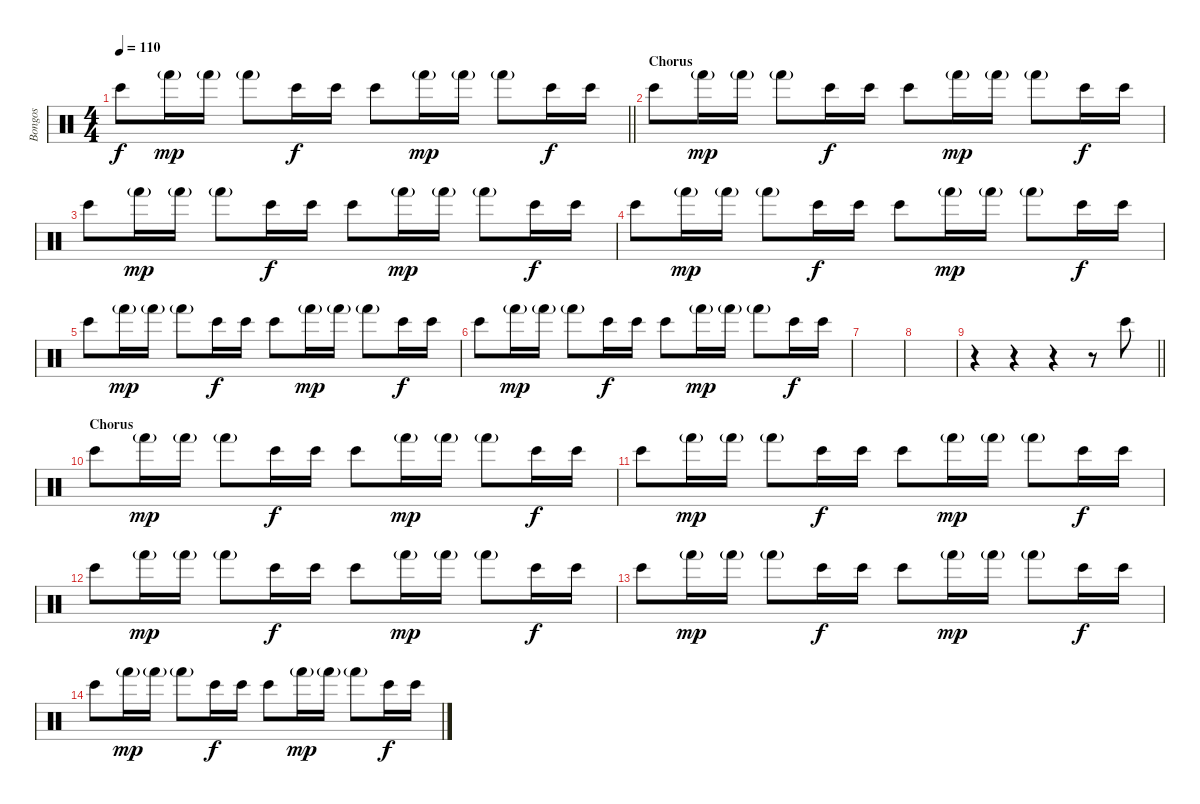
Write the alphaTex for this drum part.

\track ("Bongos" "Bongos") {instrument percussion}
\staff {score}
\articulation defaults
\ts (4 4)
\tempo 110
\clef neutral
\barLineRight lightlight
\ks c "Bongo High (hit)".8{dy f} "Hand (hit)"{g}.16{dy mp} "Hand (hit)"{g}.16 "Hand (hit)"{g}.8 "Bongo High (hit)".16{dy f} "Bongo High (hit)".16 "Bongo High (hit)".8 "Hand (hit)"{g}.16{dy mp} "Hand (hit)"{g}.16 "Hand (hit)"{g}.8 "Bongo High (hit)".16{dy f} "Bongo High (hit)".16
|
\section ("" "Chorus")
"Bongo High (hit)".8 "Hand (hit)"{g}.16{dy mp} "Hand (hit)"{g}.16 "Hand (hit)"{g}.8 "Bongo High (hit)".16{dy f} "Bongo High (hit)".16 "Bongo High (hit)".8 "Hand (hit)"{g}.16{dy mp} "Hand (hit)"{g}.16 "Hand (hit)"{g}.8 "Bongo High (hit)".16{dy f} "Bongo High (hit)".16 |
"Bongo High (hit)".8 "Hand (hit)"{g}.16{dy mp} "Hand (hit)"{g}.16 "Hand (hit)"{g}.8 "Bongo High (hit)".16{dy f} "Bongo High (hit)".16 "Bongo High (hit)".8 "Hand (hit)"{g}.16{dy mp} "Hand (hit)"{g}.16 "Hand (hit)"{g}.8 "Bongo High (hit)".16{dy f} "Bongo High (hit)".16 |
"Bongo High (hit)".8 "Hand (hit)"{g}.16{dy mp} "Hand (hit)"{g}.16 "Hand (hit)"{g}.8 "Bongo High (hit)".16{dy f} "Bongo High (hit)".16 "Bongo High (hit)".8 "Hand (hit)"{g}.16{dy mp} "Hand (hit)"{g}.16 "Hand (hit)"{g}.8 "Bongo High (hit)".16{dy f} "Bongo High (hit)".16 |
"Bongo High (hit)".8 "Hand (hit)"{g}.16{dy mp} "Hand (hit)"{g}.16 "Hand (hit)"{g}.8 "Bongo High (hit)".16{dy f} "Bongo High (hit)".16 "Bongo High (hit)".8 "Hand (hit)"{g}.16{dy mp} "Hand (hit)"{g}.16 "Hand (hit)"{g}.8 "Bongo High (hit)".16{dy f} "Bongo High (hit)".16 |
"Bongo High (hit)".8 "Hand (hit)"{g}.16{dy mp} "Hand (hit)"{g}.16 "Hand (hit)"{g}.8 "Bongo High (hit)".16{dy f} "Bongo High (hit)".16 "Bongo High (hit)".8 "Hand (hit)"{g}.16{dy mp} "Hand (hit)"{g}.16 "Hand (hit)"{g}.8 "Bongo High (hit)".16{dy f} "Bongo High (hit)".16 |
|
|
\barLineRight lightlight
r.4 r.4 r.4 r.8 "Bongo High (hit)".8 |
\section ("" "Chorus")
"Bongo High (hit)".8 "Hand (hit)"{g}.16{dy mp} "Hand (hit)"{g}.16 "Hand (hit)"{g}.8 "Bongo High (hit)".16{dy f} "Bongo High (hit)".16 "Bongo High (hit)".8 "Hand (hit)"{g}.16{dy mp} "Hand (hit)"{g}.16 "Hand (hit)"{g}.8 "Bongo High (hit)".16{dy f} "Bongo High (hit)".16 |
"Bongo High (hit)".8 "Hand (hit)"{g}.16{dy mp} "Hand (hit)"{g}.16 "Hand (hit)"{g}.8 "Bongo High (hit)".16{dy f} "Bongo High (hit)".16 "Bongo High (hit)".8 "Hand (hit)"{g}.16{dy mp} "Hand (hit)"{g}.16 "Hand (hit)"{g}.8 "Bongo High (hit)".16{dy f} "Bongo High (hit)".16 |
"Bongo High (hit)".8 "Hand (hit)"{g}.16{dy mp} "Hand (hit)"{g}.16 "Hand (hit)"{g}.8 "Bongo High (hit)".16{dy f} "Bongo High (hit)".16 "Bongo High (hit)".8 "Hand (hit)"{g}.16{dy mp} "Hand (hit)"{g}.16 "Hand (hit)"{g}.8 "Bongo High (hit)".16{dy f} "Bongo High (hit)".16 |
"Bongo High (hit)".8 "Hand (hit)"{g}.16{dy mp} "Hand (hit)"{g}.16 "Hand (hit)"{g}.8 "Bongo High (hit)".16{dy f} "Bongo High (hit)".16 "Bongo High (hit)".8 "Hand (hit)"{g}.16{dy mp} "Hand (hit)"{g}.16 "Hand (hit)"{g}.8 "Bongo High (hit)".16{dy f} "Bongo High (hit)".16 |
"Bongo High (hit)".8 "Hand (hit)"{g}.16{dy mp} "Hand (hit)"{g}.16 "Hand (hit)"{g}.8 "Bongo High (hit)".16{dy f} "Bongo High (hit)".16 "Bongo High (hit)".8 "Hand (hit)"{g}.16{dy mp} "Hand (hit)"{g}.16 "Hand (hit)"{g}.8 "Bongo High (hit)".16{dy f} "Bongo High (hit)".16
